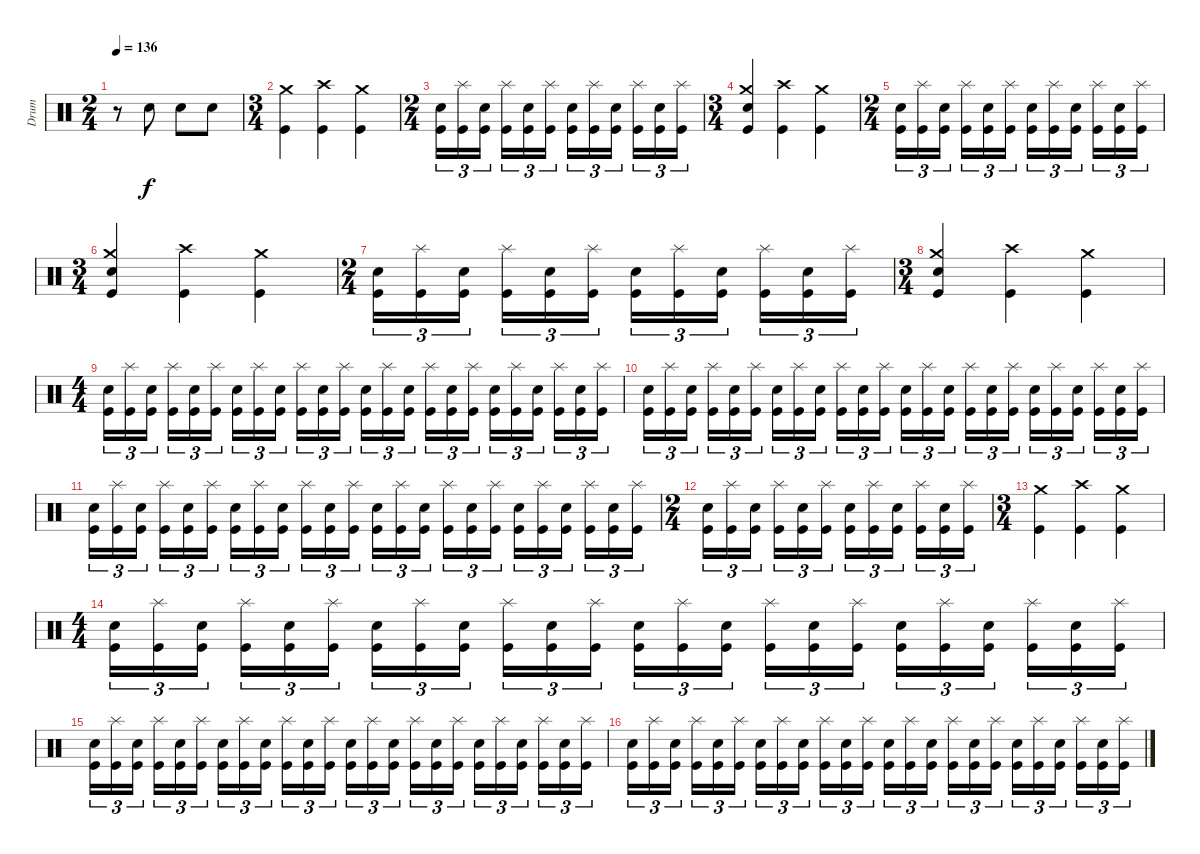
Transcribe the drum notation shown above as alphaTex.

\track ("Drum" "Drum") {instrument percussion}
\staff
\articulation defaults
\ts (2 4)
\tempo 136
\clef neutral
\ks c
r.8{dy f} "Electric Snare (hit)".8 "Electric Snare (hit)".8 "Electric Snare (hit)".8 |
\ts (3 4)
("Crash medium (hit)" "Kick (hit)").4 ("Crash high (hit)" "Kick (hit)").4 ("Crash medium (hit)" "Kick (hit)").4 |
\ts (2 4)
("Electric Snare (hit)" "Kick (hit)").16{tu (3 2)} ("Splash (hit)" "Kick (hit)").16{tu (3 2)} ("Electric Snare (hit)" "Kick (hit)").16{tu (3 2) beam splitsecondary} ("Splash (hit)" "Kick (hit)").16{tu (3 2)} ("Electric Snare (hit)" "Kick (hit)").16{tu (3 2)} ("Splash (hit)" "Kick (hit)").16{tu (3 2)} ("Electric Snare (hit)" "Kick (hit)").16{tu (3 2)} ("Splash (hit)" "Kick (hit)").16{tu (3 2)} ("Electric Snare (hit)" "Kick (hit)").16{tu (3 2) beam splitsecondary} ("Splash (hit)" "Kick (hit)").16{tu (3 2)} ("Electric Snare (hit)" "Kick (hit)").16{tu (3 2)} ("Splash (hit)" "Kick (hit)").16{tu (3 2)} |
\ts (3 4)
("Crash medium (hit)" "Electric Snare (hit)" "Kick (hit)").4 ("Crash high (hit)" "Kick (hit)").4 ("Crash medium (hit)" "Kick (hit)").4 |
\ts (2 4)
("Electric Snare (hit)" "Kick (hit)").16{tu (3 2)} ("Splash (hit)" "Kick (hit)").16{tu (3 2)} ("Electric Snare (hit)" "Kick (hit)").16{tu (3 2) beam splitsecondary} ("Splash (hit)" "Kick (hit)").16{tu (3 2)} ("Electric Snare (hit)" "Kick (hit)").16{tu (3 2)} ("Splash (hit)" "Kick (hit)").16{tu (3 2)} ("Electric Snare (hit)" "Kick (hit)").16{tu (3 2)} ("Splash (hit)" "Kick (hit)").16{tu (3 2)} ("Electric Snare (hit)" "Kick (hit)").16{tu (3 2) beam splitsecondary} ("Splash (hit)" "Kick (hit)").16{tu (3 2)} ("Electric Snare (hit)" "Kick (hit)").16{tu (3 2)} ("Splash (hit)" "Kick (hit)").16{tu (3 2)} |
\ts (3 4)
("Crash medium (hit)" "Electric Snare (hit)" "Kick (hit)").4 ("Crash high (hit)" "Kick (hit)").4 ("Crash medium (hit)" "Kick (hit)").4 |
\ts (2 4)
("Electric Snare (hit)" "Kick (hit)").16{tu (3 2)} ("Splash (hit)" "Kick (hit)").16{tu (3 2)} ("Electric Snare (hit)" "Kick (hit)").16{tu (3 2) beam splitsecondary} ("Splash (hit)" "Kick (hit)").16{tu (3 2)} ("Electric Snare (hit)" "Kick (hit)").16{tu (3 2)} ("Splash (hit)" "Kick (hit)").16{tu (3 2)} ("Electric Snare (hit)" "Kick (hit)").16{tu (3 2)} ("Splash (hit)" "Kick (hit)").16{tu (3 2)} ("Electric Snare (hit)" "Kick (hit)").16{tu (3 2) beam splitsecondary} ("Splash (hit)" "Kick (hit)").16{tu (3 2)} ("Electric Snare (hit)" "Kick (hit)").16{tu (3 2)} ("Splash (hit)" "Kick (hit)").16{tu (3 2)} |
\ts (3 4)
("Crash medium (hit)" "Electric Snare (hit)" "Kick (hit)").4 ("Crash high (hit)" "Kick (hit)").4 ("Crash medium (hit)" "Kick (hit)").4 |
\ts (4 4)
("Electric Snare (hit)" "Kick (hit)").16{tu (3 2)} ("Splash (hit)" "Kick (hit)").16{tu (3 2)} ("Electric Snare (hit)" "Kick (hit)").16{tu (3 2) beam splitsecondary} ("Splash (hit)" "Kick (hit)").16{tu (3 2)} ("Electric Snare (hit)" "Kick (hit)").16{tu (3 2)} ("Splash (hit)" "Kick (hit)").16{tu (3 2)} ("Electric Snare (hit)" "Kick (hit)").16{tu (3 2)} ("Splash (hit)" "Kick (hit)").16{tu (3 2)} ("Electric Snare (hit)" "Kick (hit)").16{tu (3 2) beam splitsecondary} ("Splash (hit)" "Kick (hit)").16{tu (3 2)} ("Electric Snare (hit)" "Kick (hit)").16{tu (3 2)} ("Splash (hit)" "Kick (hit)").16{tu (3 2)} ("Electric Snare (hit)" "Kick (hit)").16{tu (3 2)} ("Splash (hit)" "Kick (hit)").16{tu (3 2)} ("Electric Snare (hit)" "Kick (hit)").16{tu (3 2) beam splitsecondary} ("Splash (hit)" "Kick (hit)").16{tu (3 2)} ("Electric Snare (hit)" "Kick (hit)").16{tu (3 2)} ("Splash (hit)" "Kick (hit)").16{tu (3 2)} ("Electric Snare (hit)" "Kick (hit)").16{tu (3 2)} ("Splash (hit)" "Kick (hit)").16{tu (3 2)} ("Electric Snare (hit)" "Kick (hit)").16{tu (3 2) beam splitsecondary} ("Splash (hit)" "Kick (hit)").16{tu (3 2)} ("Electric Snare (hit)" "Kick (hit)").16{tu (3 2)} ("Splash (hit)" "Kick (hit)").16{tu (3 2)} |
("Electric Snare (hit)" "Kick (hit)").16{tu (3 2)} ("Splash (hit)" "Kick (hit)").16{tu (3 2)} ("Electric Snare (hit)" "Kick (hit)").16{tu (3 2) beam splitsecondary} ("Splash (hit)" "Kick (hit)").16{tu (3 2)} ("Electric Snare (hit)" "Kick (hit)").16{tu (3 2)} ("Splash (hit)" "Kick (hit)").16{tu (3 2)} ("Electric Snare (hit)" "Kick (hit)").16{tu (3 2)} ("Splash (hit)" "Kick (hit)").16{tu (3 2)} ("Electric Snare (hit)" "Kick (hit)").16{tu (3 2) beam splitsecondary} ("Splash (hit)" "Kick (hit)").16{tu (3 2)} ("Electric Snare (hit)" "Kick (hit)").16{tu (3 2)} ("Splash (hit)" "Kick (hit)").16{tu (3 2)} ("Electric Snare (hit)" "Kick (hit)").16{tu (3 2)} ("Splash (hit)" "Kick (hit)").16{tu (3 2)} ("Electric Snare (hit)" "Kick (hit)").16{tu (3 2) beam splitsecondary} ("Splash (hit)" "Kick (hit)").16{tu (3 2)} ("Electric Snare (hit)" "Kick (hit)").16{tu (3 2)} ("Splash (hit)" "Kick (hit)").16{tu (3 2)} ("Electric Snare (hit)" "Kick (hit)").16{tu (3 2)} ("Splash (hit)" "Kick (hit)").16{tu (3 2)} ("Electric Snare (hit)" "Kick (hit)").16{tu (3 2) beam splitsecondary} ("Splash (hit)" "Kick (hit)").16{tu (3 2)} ("Electric Snare (hit)" "Kick (hit)").16{tu (3 2)} ("Splash (hit)" "Kick (hit)").16{tu (3 2)} |
("Electric Snare (hit)" "Kick (hit)").16{tu (3 2)} ("Splash (hit)" "Kick (hit)").16{tu (3 2)} ("Electric Snare (hit)" "Kick (hit)").16{tu (3 2) beam splitsecondary} ("Splash (hit)" "Kick (hit)").16{tu (3 2)} ("Electric Snare (hit)" "Kick (hit)").16{tu (3 2)} ("Splash (hit)" "Kick (hit)").16{tu (3 2)} ("Electric Snare (hit)" "Kick (hit)").16{tu (3 2)} ("Splash (hit)" "Kick (hit)").16{tu (3 2)} ("Electric Snare (hit)" "Kick (hit)").16{tu (3 2) beam splitsecondary} ("Splash (hit)" "Kick (hit)").16{tu (3 2)} ("Electric Snare (hit)" "Kick (hit)").16{tu (3 2)} ("Splash (hit)" "Kick (hit)").16{tu (3 2)} ("Electric Snare (hit)" "Kick (hit)").16{tu (3 2)} ("Splash (hit)" "Kick (hit)").16{tu (3 2)} ("Electric Snare (hit)" "Kick (hit)").16{tu (3 2) beam splitsecondary} ("Splash (hit)" "Kick (hit)").16{tu (3 2)} ("Electric Snare (hit)" "Kick (hit)").16{tu (3 2)} ("Splash (hit)" "Kick (hit)").16{tu (3 2)} ("Electric Snare (hit)" "Kick (hit)").16{tu (3 2)} ("Splash (hit)" "Kick (hit)").16{tu (3 2)} ("Electric Snare (hit)" "Kick (hit)").16{tu (3 2) beam splitsecondary} ("Splash (hit)" "Kick (hit)").16{tu (3 2)} ("Electric Snare (hit)" "Kick (hit)").16{tu (3 2)} ("Splash (hit)" "Kick (hit)").16{tu (3 2)} |
\ts (2 4)
("Electric Snare (hit)" "Kick (hit)").16{tu (3 2)} ("Splash (hit)" "Kick (hit)").16{tu (3 2)} ("Electric Snare (hit)" "Kick (hit)").16{tu (3 2) beam splitsecondary} ("Splash (hit)" "Kick (hit)").16{tu (3 2)} ("Electric Snare (hit)" "Kick (hit)").16{tu (3 2)} ("Splash (hit)" "Kick (hit)").16{tu (3 2)} ("Electric Snare (hit)" "Kick (hit)").16{tu (3 2)} ("Splash (hit)" "Kick (hit)").16{tu (3 2)} ("Electric Snare (hit)" "Kick (hit)").16{tu (3 2) beam splitsecondary} ("Splash (hit)" "Kick (hit)").16{tu (3 2)} ("Electric Snare (hit)" "Kick (hit)").16{tu (3 2)} ("Splash (hit)" "Kick (hit)").16{tu (3 2)} |
\ts (3 4)
("Crash medium (hit)" "Kick (hit)").4 ("Crash high (hit)" "Kick (hit)").4 ("Crash medium (hit)" "Kick (hit)").4 |
\ts (4 4)
("Electric Snare (hit)" "Kick (hit)").16{tu (3 2)} ("Splash (hit)" "Kick (hit)").16{tu (3 2)} ("Electric Snare (hit)" "Kick (hit)").16{tu (3 2) beam splitsecondary} ("Splash (hit)" "Kick (hit)").16{tu (3 2)} ("Electric Snare (hit)" "Kick (hit)").16{tu (3 2)} ("Splash (hit)" "Kick (hit)").16{tu (3 2)} ("Electric Snare (hit)" "Kick (hit)").16{tu (3 2)} ("Splash (hit)" "Kick (hit)").16{tu (3 2)} ("Electric Snare (hit)" "Kick (hit)").16{tu (3 2) beam splitsecondary} ("Splash (hit)" "Kick (hit)").16{tu (3 2)} ("Electric Snare (hit)" "Kick (hit)").16{tu (3 2)} ("Splash (hit)" "Kick (hit)").16{tu (3 2)} ("Electric Snare (hit)" "Kick (hit)").16{tu (3 2)} ("Splash (hit)" "Kick (hit)").16{tu (3 2)} ("Electric Snare (hit)" "Kick (hit)").16{tu (3 2) beam splitsecondary} ("Splash (hit)" "Kick (hit)").16{tu (3 2)} ("Electric Snare (hit)" "Kick (hit)").16{tu (3 2)} ("Splash (hit)" "Kick (hit)").16{tu (3 2)} ("Electric Snare (hit)" "Kick (hit)").16{tu (3 2)} ("Splash (hit)" "Kick (hit)").16{tu (3 2)} ("Electric Snare (hit)" "Kick (hit)").16{tu (3 2) beam splitsecondary} ("Splash (hit)" "Kick (hit)").16{tu (3 2)} ("Electric Snare (hit)" "Kick (hit)").16{tu (3 2)} ("Splash (hit)" "Kick (hit)").16{tu (3 2)} |
("Electric Snare (hit)" "Kick (hit)").16{tu (3 2)} ("Splash (hit)" "Kick (hit)").16{tu (3 2)} ("Electric Snare (hit)" "Kick (hit)").16{tu (3 2) beam splitsecondary} ("Splash (hit)" "Kick (hit)").16{tu (3 2)} ("Electric Snare (hit)" "Kick (hit)").16{tu (3 2)} ("Splash (hit)" "Kick (hit)").16{tu (3 2)} ("Electric Snare (hit)" "Kick (hit)").16{tu (3 2)} ("Splash (hit)" "Kick (hit)").16{tu (3 2)} ("Electric Snare (hit)" "Kick (hit)").16{tu (3 2) beam splitsecondary} ("Splash (hit)" "Kick (hit)").16{tu (3 2)} ("Electric Snare (hit)" "Kick (hit)").16{tu (3 2)} ("Splash (hit)" "Kick (hit)").16{tu (3 2)} ("Electric Snare (hit)" "Kick (hit)").16{tu (3 2)} ("Splash (hit)" "Kick (hit)").16{tu (3 2)} ("Electric Snare (hit)" "Kick (hit)").16{tu (3 2) beam splitsecondary} ("Splash (hit)" "Kick (hit)").16{tu (3 2)} ("Electric Snare (hit)" "Kick (hit)").16{tu (3 2)} ("Splash (hit)" "Kick (hit)").16{tu (3 2)} ("Electric Snare (hit)" "Kick (hit)").16{tu (3 2)} ("Splash (hit)" "Kick (hit)").16{tu (3 2)} ("Electric Snare (hit)" "Kick (hit)").16{tu (3 2) beam splitsecondary} ("Splash (hit)" "Kick (hit)").16{tu (3 2)} ("Electric Snare (hit)" "Kick (hit)").16{tu (3 2)} ("Splash (hit)" "Kick (hit)").16{tu (3 2)} |
("Electric Snare (hit)" "Kick (hit)").16{tu (3 2)} ("Splash (hit)" "Kick (hit)").16{tu (3 2)} ("Electric Snare (hit)" "Kick (hit)").16{tu (3 2) beam splitsecondary} ("Splash (hit)" "Kick (hit)").16{tu (3 2)} ("Electric Snare (hit)" "Kick (hit)").16{tu (3 2)} ("Splash (hit)" "Kick (hit)").16{tu (3 2)} ("Electric Snare (hit)" "Kick (hit)").16{tu (3 2)} ("Splash (hit)" "Kick (hit)").16{tu (3 2)} ("Electric Snare (hit)" "Kick (hit)").16{tu (3 2) beam splitsecondary} ("Splash (hit)" "Kick (hit)").16{tu (3 2)} ("Electric Snare (hit)" "Kick (hit)").16{tu (3 2)} ("Splash (hit)" "Kick (hit)").16{tu (3 2)} ("Electric Snare (hit)" "Kick (hit)").16{tu (3 2)} ("Splash (hit)" "Kick (hit)").16{tu (3 2)} ("Electric Snare (hit)" "Kick (hit)").16{tu (3 2) beam splitsecondary} ("Splash (hit)" "Kick (hit)").16{tu (3 2)} ("Electric Snare (hit)" "Kick (hit)").16{tu (3 2)} ("Splash (hit)" "Kick (hit)").16{tu (3 2)} ("Electric Snare (hit)" "Kick (hit)").16{tu (3 2)} ("Splash (hit)" "Kick (hit)").16{tu (3 2)} ("Electric Snare (hit)" "Kick (hit)").16{tu (3 2) beam splitsecondary} ("Splash (hit)" "Kick (hit)").16{tu (3 2)} ("Electric Snare (hit)" "Kick (hit)").16{tu (3 2)} ("Splash (hit)" "Kick (hit)").16{tu (3 2)}
